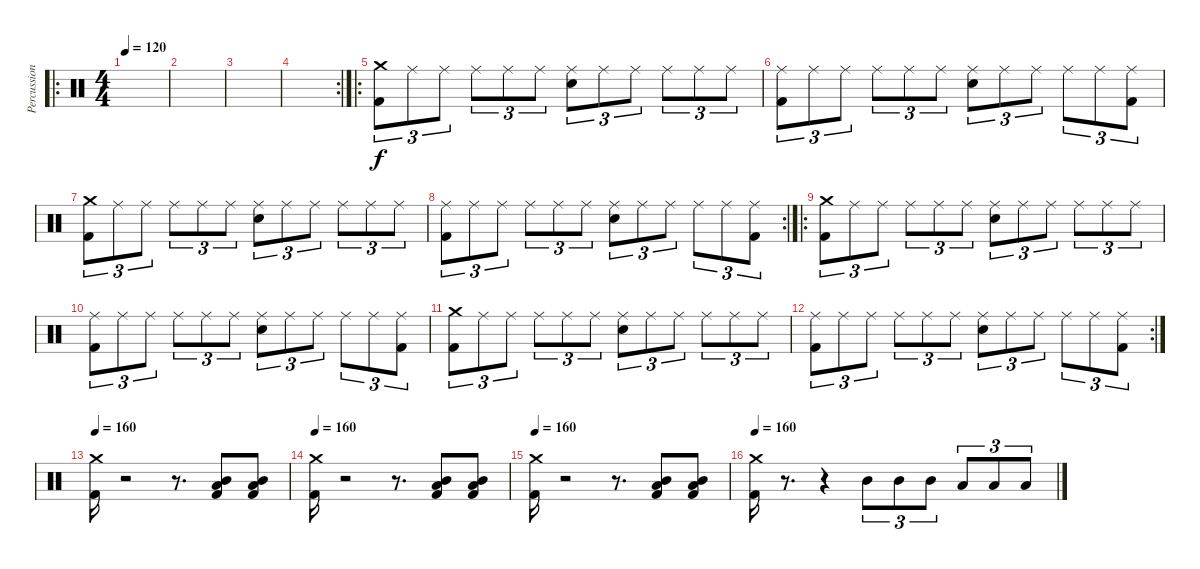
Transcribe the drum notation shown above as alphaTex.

\track ("Percussions" "Percussion") {instrument percussion}
\staff {score}
\articulation defaults
\ro
\ts (4 4)
\tempo 120
\clef neutral
\ks c
|
|
|
\rc 2
|
\ro
("Crash medium (hit)" "Kick (hit) 2").8{tu (3 2)} "Ride (middle)".8{tu (3 2)} "Ride (middle)".8{tu (3 2)} "Ride (middle)".8{tu (3 2)} "Ride (middle)".8{tu (3 2)} "Ride (middle)".8{tu (3 2)} ("Ride (middle)" "Electric Snare (hit)").8{tu (3 2)} "Ride (middle)".8{tu (3 2)} "Ride (middle)".8{tu (3 2)} "Ride (middle)".8{tu (3 2)} "Ride (middle)".8{tu (3 2)} "Ride (middle)".8{tu (3 2)} |
("Ride (middle)" "Kick (hit) 2").8{tu (3 2)} "Ride (middle)".8{tu (3 2)} "Ride (middle)".8{tu (3 2)} "Ride (middle)".8{tu (3 2)} "Ride (middle)".8{tu (3 2)} "Ride (middle)".8{tu (3 2)} ("Ride (middle)" "Electric Snare (hit)").8{tu (3 2)} "Ride (middle)".8{tu (3 2)} "Ride (middle)".8{tu (3 2)} "Ride (middle)".8{tu (3 2)} "Ride (middle)".8{tu (3 2)} ("Ride (middle)" "Kick (hit) 2").8{tu (3 2)} |
("Crash medium (hit)" "Kick (hit) 2").8{tu (3 2)} "Ride (middle)".8{tu (3 2)} "Ride (middle)".8{tu (3 2)} "Ride (middle)".8{tu (3 2)} "Ride (middle)".8{tu (3 2)} "Ride (middle)".8{tu (3 2)} ("Ride (middle)" "Electric Snare (hit)").8{tu (3 2)} "Ride (middle)".8{tu (3 2)} "Ride (middle)".8{tu (3 2)} "Ride (middle)".8{tu (3 2)} "Ride (middle)".8{tu (3 2)} "Ride (middle)".8{tu (3 2)} |
\rc 2
("Ride (middle)" "Kick (hit) 2").8{tu (3 2)} "Ride (middle)".8{tu (3 2)} "Ride (middle)".8{tu (3 2)} "Ride (middle)".8{tu (3 2)} "Ride (middle)".8{tu (3 2)} "Ride (middle)".8{tu (3 2)} ("Ride (middle)" "Electric Snare (hit)").8{tu (3 2)} "Ride (middle)".8{tu (3 2)} "Ride (middle)".8{tu (3 2)} "Ride (middle)".8{tu (3 2)} "Ride (middle)".8{tu (3 2)} ("Ride (middle)" "Kick (hit) 2").8{tu (3 2)} |
\ro
("Crash medium (hit)" "Kick (hit) 2").8{tu (3 2)} "Ride (middle)".8{tu (3 2)} "Ride (middle)".8{tu (3 2)} "Ride (middle)".8{tu (3 2)} "Ride (middle)".8{tu (3 2)} "Ride (middle)".8{tu (3 2)} ("Ride (middle)" "Electric Snare (hit)").8{tu (3 2)} "Ride (middle)".8{tu (3 2)} "Ride (middle)".8{tu (3 2)} "Ride (middle)".8{tu (3 2)} "Ride (middle)".8{tu (3 2)} "Ride (middle)".8{tu (3 2)} |
("Ride (middle)" "Kick (hit) 2").8{tu (3 2)} "Ride (middle)".8{tu (3 2)} "Ride (middle)".8{tu (3 2)} "Ride (middle)".8{tu (3 2)} "Ride (middle)".8{tu (3 2)} "Ride (middle)".8{tu (3 2)} ("Ride (middle)" "Electric Snare (hit)").8{tu (3 2)} "Ride (middle)".8{tu (3 2)} "Ride (middle)".8{tu (3 2)} "Ride (middle)".8{tu (3 2)} "Ride (middle)".8{tu (3 2)} ("Ride (middle)" "Kick (hit) 2").8{tu (3 2)} |
("Crash medium (hit)" "Kick (hit) 2").8{tu (3 2)} "Ride (middle)".8{tu (3 2)} "Ride (middle)".8{tu (3 2)} "Ride (middle)".8{tu (3 2)} "Ride (middle)".8{tu (3 2)} "Ride (middle)".8{tu (3 2)} ("Ride (middle)" "Electric Snare (hit)").8{tu (3 2)} "Ride (middle)".8{tu (3 2)} "Ride (middle)".8{tu (3 2)} "Ride (middle)".8{tu (3 2)} "Ride (middle)".8{tu (3 2)} "Ride (middle)".8{tu (3 2)} |
\rc 2
("Ride (middle)" "Kick (hit) 2").8{tu (3 2)} "Ride (middle)".8{tu (3 2)} "Ride (middle)".8{tu (3 2)} "Ride (middle)".8{tu (3 2)} "Ride (middle)".8{tu (3 2)} "Ride (middle)".8{tu (3 2)} ("Ride (middle)" "Electric Snare (hit)").8{tu (3 2)} "Ride (middle)".8{tu (3 2)} "Ride (middle)".8{tu (3 2)} "Ride (middle)".8{tu (3 2)} "Ride (middle)".8{tu (3 2)} ("Ride (middle)" "Kick (hit) 2").8{tu (3 2)} |
\tempo 160
("Crash medium (hit)" "Kick (hit) 2").16 r.2 r.8{d} ("Mid Tom (hit)" "Low Tom (hit)" "Kick (hit) 2").8 ("Mid Tom (hit)" "Low Tom (hit)" "Kick (hit) 2").8 |
\tempo 160
("Crash medium (hit)" "Kick (hit) 2").16 r.2 r.8{d} ("Mid Tom (hit)" "Low Tom (hit)" "Kick (hit) 2").8 ("Mid Tom (hit)" "Low Tom (hit)" "Kick (hit) 2").8 |
\tempo 160
("Crash medium (hit)" "Kick (hit) 2").16 r.2 r.8{d} ("Mid Tom (hit)" "Low Tom (hit)" "Kick (hit) 2").8 ("Mid Tom (hit)" "Low Tom (hit)" "Kick (hit) 2").8 |
\tempo 160
("Crash medium (hit)" "Kick (hit) 2").16 r.8{d} r.4 "Mid Tom (hit)".8{tu (3 2)} "Mid Tom (hit)".8{tu (3 2)} "Mid Tom (hit)".8{tu (3 2)} "Low Tom (hit)".8{tu (3 2)} "Low Tom (hit)".8{tu (3 2)} "Low Tom (hit)".8{tu (3 2)}
